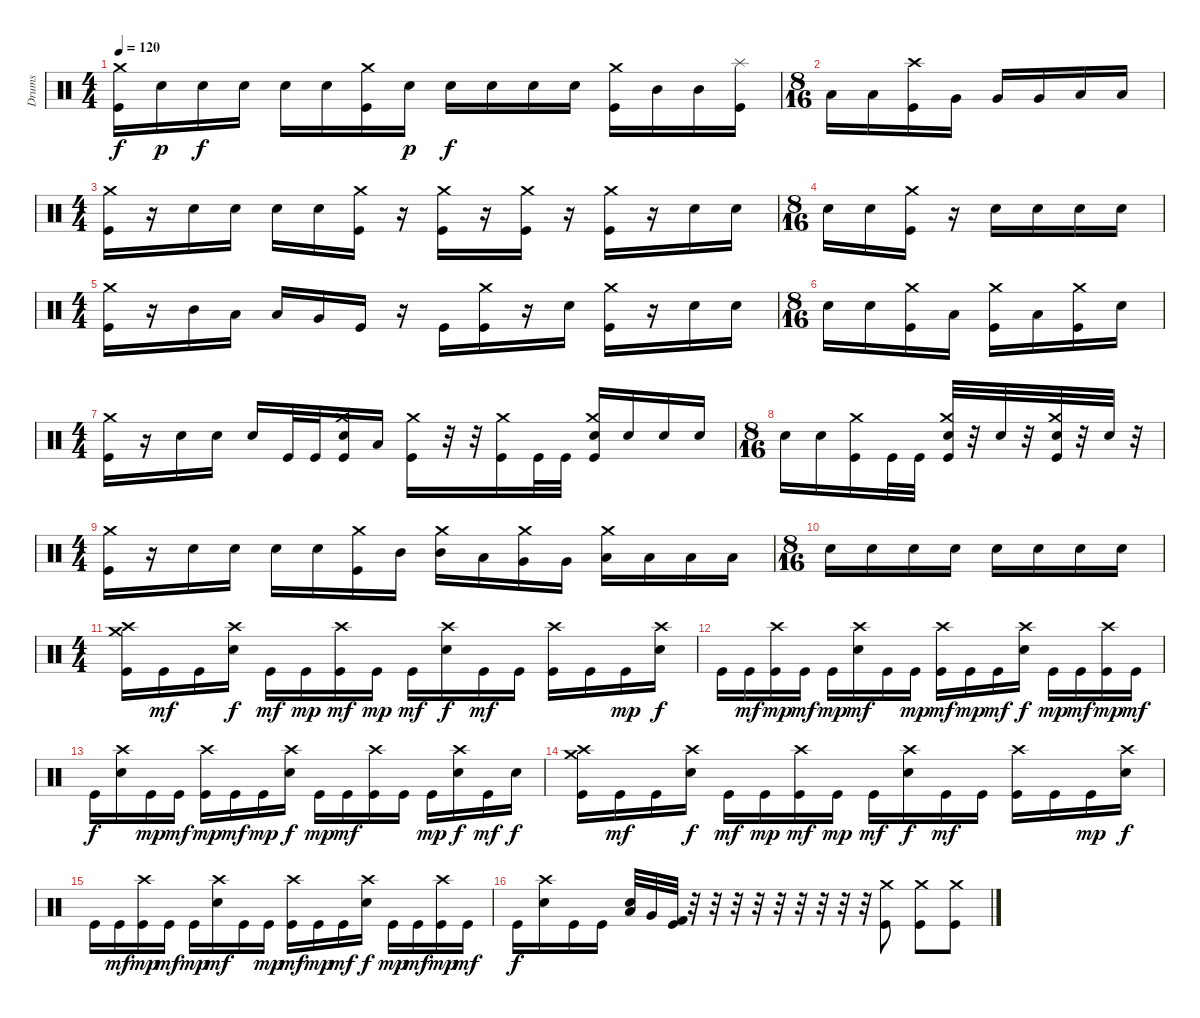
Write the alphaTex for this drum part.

\track ("Drums" "Drums") {instrument percussion}
\staff {score}
\articulation defaults
\ts (4 4)
\tempo 120
\clef neutral
\ks c
("Kick (hit)" "Crash medium (hit)").16{dy f} "Electric Snare (hit)".16{dy p} "Electric Snare (hit)".16{dy f} "Electric Snare (hit)".16 "Electric Snare (hit)".16 "Electric Snare (hit)".16 ("Crash medium (hit)" "Kick (hit)").16 "Electric Snare (hit)".16{dy p} "Electric Snare (hit)".16{dy f} "Electric Snare (hit)".16 "Electric Snare (hit)".16 "Electric Snare (hit)".16 ("Crash medium (hit)" "Kick (hit)").16 "Mid Tom (hit)".16 "Mid Tom (hit)".16 ("Splash (hit)" "Kick (hit)").16 |
\ts (8 16)
"Low Tom (hit)".16 "Low Tom (hit)".16 ("Crash high (hit)" "Kick (hit)").16 "Very Low Tom (hit)".16 "Very Low Tom (hit)".16 "Very Low Tom (hit)".16 "Low Floor Tom (hit)".16 "Low Floor Tom (hit)".16 |
\ts (4 4)
("Crash medium (hit)" "Kick (hit)").16 r.16 "Electric Snare (hit)".16 "Electric Snare (hit)".16 "Electric Snare (hit)".16 "Electric Snare (hit)".16 ("Crash medium (hit)" "Kick (hit)").16 r.16 ("Crash medium (hit)" "Kick (hit)").16 r.16 ("Crash medium (hit)" "Kick (hit)").16 r.16 ("Crash medium (hit)" "Kick (hit)").16 r.16 "Electric Snare (hit)".16 "Electric Snare (hit)".16 |
\ts (8 16)
"Electric Snare (hit)".16 "Electric Snare (hit)".16 ("Crash medium (hit)" "Kick (hit)").16 r.16 "Electric Snare (hit)".16 "Electric Snare (hit)".16 "Electric Snare (hit)".16 "Electric Snare (hit)".16 |
\ts (4 4)
("Crash medium (hit)" "Kick (hit)").16 r.16 "Mid Tom (hit)".16 "Low Tom (hit)".16 "Low Tom (hit)".16 "Very Low Tom (hit)".16 "Kick (hit)".16 r.16 "Kick (hit)".16 ("Crash medium (hit)" "Kick (hit)").16 r.16 "Electric Snare (hit)".16 ("Crash medium (hit)" "Kick (hit)").16 r.16 "Electric Snare (hit)".16 "Electric Snare (hit)".16 |
\ts (8 16)
"Electric Snare (hit)".16 "Electric Snare (hit)".16 ("Kick (hit)" "Crash medium (hit)").16 "Low Floor Tom (hit)".16 ("Kick (hit)" "Crash medium (hit)").16 "Low Floor Tom (hit)".16 ("Kick (hit)" "Crash medium (hit)").16 "Electric Snare (hit)".16 |
\ts (4 4)
("Kick (hit)" "Crash medium (hit)").16 r.16 "Electric Snare (hit)".16 "Electric Snare (hit)".16 "Electric Snare (hit)".16 "Kick (hit)".32 "Kick (hit)".32 ("Kick (hit)" "Electric Snare (hit)" "Crash medium (hit)").16 "Low Floor Tom (hit)".16 ("Kick (hit)" "Crash medium (hit)").16 r.32 r.32 ("Kick (hit)" "Crash medium (hit)").16 "Kick (hit)".32 "Kick (hit)".32 ("Crash medium (hit)" "Electric Snare (hit)" "Kick (hit)").16 "Electric Snare (hit)".16 "Electric Snare (hit)".16 "Electric Snare (hit)".16 |
\ts (8 16)
"Electric Snare (hit)".16 "Electric Snare (hit)".16 ("Kick (hit)" "Crash medium (hit)").16 "Kick (hit)".32 "Kick (hit)".32 ("Kick (hit)" "Crash medium (hit)" "Electric Snare (hit)").32 r.32 "Electric Snare (hit)".32 r.32 ("Electric Snare (hit)" "Kick (hit)" "Crash medium (hit)").32 r.32 "Electric Snare (hit)".32 r.32 |
\ts (4 4)
("Crash medium (hit)" "Kick (hit)").16 r.16 "Electric Snare (hit)".16 "Electric Snare (hit)".16 "Electric Snare (hit)".16 "Electric Snare (hit)".16 ("Kick (hit)" "Crash medium (hit)").16 "Mid Tom (hit)".16 ("Crash medium (hit)" "Mid Tom (hit)").16 "Low Tom (hit)".16 ("Crash medium (hit)" "Very Low Tom (hit)").16 "Very Low Tom (hit)".16 ("Crash medium (hit)" "Low Floor Tom (hit)").16 "Low Floor Tom (hit)".16 "Low Floor Tom (hit)".16 "Low Floor Tom (hit)".16 |
\ts (8 16)
"Electric Snare (hit)".16 "Electric Snare (hit)".16 "Electric Snare (hit)".16 "Electric Snare (hit)".16 "Electric Snare (hit)".16 "Electric Snare (hit)".16 "Electric Snare (hit)".16 "Electric Snare (hit)".16 |
\ts (4 4)
("Crash high (hit)" "Crash medium (hit)" "Kick (hit)").16 "Kick (hit)".16{dy mf} "Kick (hit)".16 ("Crash high (hit)" "Electric Snare (hit)").16{dy f} "Kick (hit)".16{dy mf} "Kick (hit)".16{dy mp} ("Crash high (hit)" "Kick (hit)").16{dy mf} "Kick (hit)".16{dy mp} "Kick (hit)".16{dy mf} ("Crash high (hit)" "Electric Snare (hit)").16{dy f} "Kick (hit)".16{dy mf} "Kick (hit)".16 ("Crash high (hit)" "Kick (hit)").16 "Kick (hit)".16 "Kick (hit)".16{dy mp} ("Crash high (hit)" "Electric Snare (hit)").16{dy f} |
"Kick (hit)".16 "Kick (hit)".16{dy mf} ("Crash high (hit)" "Kick (hit)").16{dy mp} "Kick (hit)".16{dy mf} "Kick (hit)".16{dy mp} ("Crash high (hit)" "Electric Snare (hit)").16{dy mf} "Kick (hit)".16 "Kick (hit)".16{dy mp} ("Crash high (hit)" "Kick (hit)").16{dy mf} "Kick (hit)".16{dy mp} "Kick (hit)".16{dy mf} ("Crash high (hit)" "Electric Snare (hit)").16{dy f} "Kick (hit)".16{dy mp} "Kick (hit)".16{dy mf} ("Crash high (hit)" "Kick (hit)").16{dy mp} "Kick (hit)".16{dy mf} |
"Kick (hit)".16{dy f} ("Crash high (hit)" "Electric Snare (hit)").16 "Kick (hit)".16{dy mp} "Kick (hit)".16{dy mf} ("Crash high (hit)" "Kick (hit)").16{dy mp} "Kick (hit)".16{dy mf} "Kick (hit)".16{dy mp} ("Crash high (hit)" "Electric Snare (hit)").16{dy f} "Kick (hit)".16{dy mp} "Kick (hit)".16{dy mf} ("Crash high (hit)" "Kick (hit)").16 "Kick (hit)".16 "Kick (hit)".16{dy mp} ("Crash high (hit)" "Electric Snare (hit)").16{dy f} "Kick (hit)".16{dy mf} "Electric Snare (hit)".16{dy f} |
("Crash high (hit)" "Crash medium (hit)" "Kick (hit)").16 "Kick (hit)".16{dy mf} "Kick (hit)".16 ("Crash high (hit)" "Electric Snare (hit)").16{dy f} "Kick (hit)".16{dy mf} "Kick (hit)".16{dy mp} ("Crash high (hit)" "Kick (hit)").16{dy mf} "Kick (hit)".16{dy mp} "Kick (hit)".16{dy mf} ("Crash high (hit)" "Electric Snare (hit)").16{dy f} "Kick (hit)".16{dy mf} "Kick (hit)".16 ("Crash high (hit)" "Kick (hit)").16 "Kick (hit)".16 "Kick (hit)".16{dy mp} ("Crash high (hit)" "Electric Snare (hit)").16{dy f} |
"Kick (hit)".16 "Kick (hit)".16{dy mf} ("Crash high (hit)" "Kick (hit)").16{dy mp} "Kick (hit)".16{dy mf} "Kick (hit)".16{dy mp} ("Crash high (hit)" "Electric Snare (hit)").16{dy mf} "Kick (hit)".16 "Kick (hit)".16{dy mp} ("Crash high (hit)" "Kick (hit)").16{dy mf} "Kick (hit)".16{dy mp} "Kick (hit)".16{dy mf} ("Crash high (hit)" "Electric Snare (hit)").16{dy f} "Kick (hit)".16{dy mp} "Kick (hit)".16{dy mf} ("Crash high (hit)" "Kick (hit)").16{dy mp} "Kick (hit)".16{dy mf} |
"Kick (hit)".16{dy f} ("Crash high (hit)" "Electric Snare (hit)").16 "Kick (hit)".16 "Kick (hit)".16 ("Electric Snare (hit)" "Low Floor Tom (hit)").32 "Very Low Tom (hit)".32 ("Kick (hit) 2" "Kick (hit)").32 r.32 r.32 r.32 r.32 r.32 r.32 r.32 r.32 r.32 ("Crash medium (hit)" "Kick (hit)").8 ("Crash medium (hit)" "Kick (hit)").8 ("Crash medium (hit)" "Kick (hit)").8
